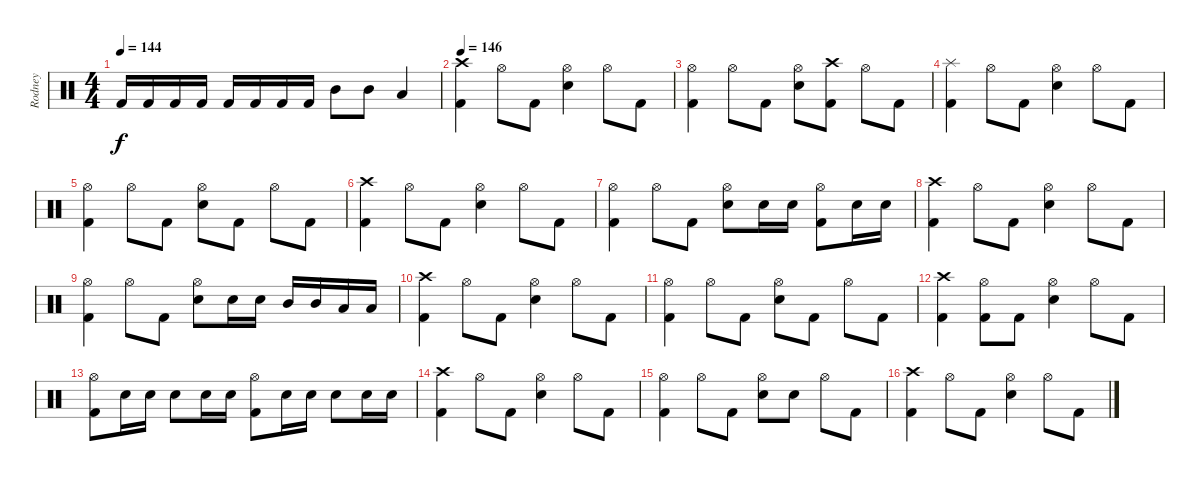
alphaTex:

\track ("Rodney" "Rodney") {instrument percussion}
\staff {score}
\articulation defaults
\ts (4 4)
\tempo 144
\clef neutral
\ks c "Kick (hit) 2".16{dy f} "Kick (hit) 2".16 "Kick (hit) 2".16 "Kick (hit) 2".16 "Kick (hit) 2".16 "Kick (hit) 2".16 "Kick (hit) 2".16 "Kick (hit) 2".16 "Mid Tom (hit)".8 "Mid Tom (hit)".8 "Low Tom (hit)".4
|
\tempo 146
("Crash high (hit)" "Kick (hit) 2").4 "Hi-Hat (open)".8 "Kick (hit) 2".8 ("Hi-Hat (open)" "Snare (hit) 2").4 "Hi-Hat (open)".8 "Kick (hit) 2".8 |
("Hi-Hat (open)" "Kick (hit) 2").4 "Hi-Hat (open)".8 "Kick (hit) 2".8 ("Hi-Hat (open)" "Snare (hit) 2").8 ("Crash high (hit)" "Kick (hit) 2").8 "Hi-Hat (open)".8 "Kick (hit) 2".8 |
("Splash (hit)" "Kick (hit) 2").4 "Hi-Hat (open)".8 "Kick (hit) 2".8 ("Hi-Hat (open)" "Snare (hit) 2").4 "Hi-Hat (open)".8 "Kick (hit) 2".8 |
("Hi-Hat (open)" "Kick (hit) 2").4 "Hi-Hat (open)".8 "Kick (hit) 2".8 ("Hi-Hat (open)" "Snare (hit) 2").8 "Kick (hit) 2".8 "Hi-Hat (open)".8 "Kick (hit) 2".8 |
("Crash high (hit)" "Kick (hit) 2").4 "Hi-Hat (open)".8 "Kick (hit) 2".8 ("Hi-Hat (open)" "Snare (hit) 2").4 "Hi-Hat (open)".8 "Kick (hit) 2".8 |
("Hi-Hat (open)" "Kick (hit) 2").4 "Hi-Hat (open)".8 "Kick (hit) 2".8 ("Hi-Hat (open)" "Snare (hit) 2").8 "Snare (hit) 2".16 "Snare (hit) 2".16 ("Hi-Hat (open)" "Kick (hit) 2").8 "Snare (hit) 2".16 "Snare (hit) 2".16 |
("Crash high (hit)" "Kick (hit) 2").4 "Hi-Hat (open)".8 "Kick (hit) 2".8 ("Hi-Hat (open)" "Snare (hit) 2").4 "Hi-Hat (open)".8 "Kick (hit) 2".8 |
("Hi-Hat (open)" "Kick (hit) 2").4 "Hi-Hat (open)".8 "Kick (hit) 2".8 ("Hi-Hat (open)" "Snare (hit) 2").8 "Snare (hit) 2".16 "Snare (hit) 2".16 "Mid Tom (hit)".16 "Mid Tom (hit)".16 "Low Tom (hit)".16 "Low Tom (hit)".16 |
("Crash high (hit)" "Kick (hit) 2").4 "Hi-Hat (open)".8 "Kick (hit) 2".8 ("Hi-Hat (open)" "Snare (hit) 2").4 "Hi-Hat (open)".8 "Kick (hit) 2".8 |
("Hi-Hat (open)" "Kick (hit) 2").4 "Hi-Hat (open)".8 "Kick (hit) 2".8 ("Hi-Hat (open)" "Snare (hit) 2").8 "Kick (hit) 2".8 "Hi-Hat (open)".8 "Kick (hit) 2".8 |
("Crash high (hit)" "Kick (hit) 2").4 ("Hi-Hat (open)" "Kick (hit) 2").8 "Kick (hit) 2".8 ("Hi-Hat (open)" "Snare (hit) 2").4 "Hi-Hat (open)".8 "Kick (hit) 2".8 |
("Hi-Hat (open)" "Kick (hit) 2").8 "Snare (hit) 2".16 "Snare (hit) 2".16 "Snare (hit) 2".8 "Snare (hit) 2".16 "Snare (hit) 2".16 ("Hi-Hat (open)" "Kick (hit) 2").8 "Snare (hit) 2".16 "Snare (hit) 2".16 "Snare (hit) 2".8 "Snare (hit) 2".16 "Snare (hit) 2".16 |
("Crash high (hit)" "Kick (hit) 2").4 "Hi-Hat (open)".8 "Kick (hit) 2".8 ("Hi-Hat (open)" "Snare (hit) 2").4 "Hi-Hat (open)".8 "Kick (hit) 2".8 |
("Hi-Hat (open)" "Kick (hit) 2").4 "Hi-Hat (open)".8 "Kick (hit) 2".8 ("Hi-Hat (open)" "Snare (hit) 2").8 "Snare (hit) 2".8 "Hi-Hat (open)".8 "Kick (hit) 2".8 |
("Crash high (hit)" "Kick (hit) 2").4 "Hi-Hat (open)".8 "Kick (hit) 2".8 ("Hi-Hat (open)" "Snare (hit) 2").4 "Hi-Hat (open)".8 "Kick (hit) 2".8
